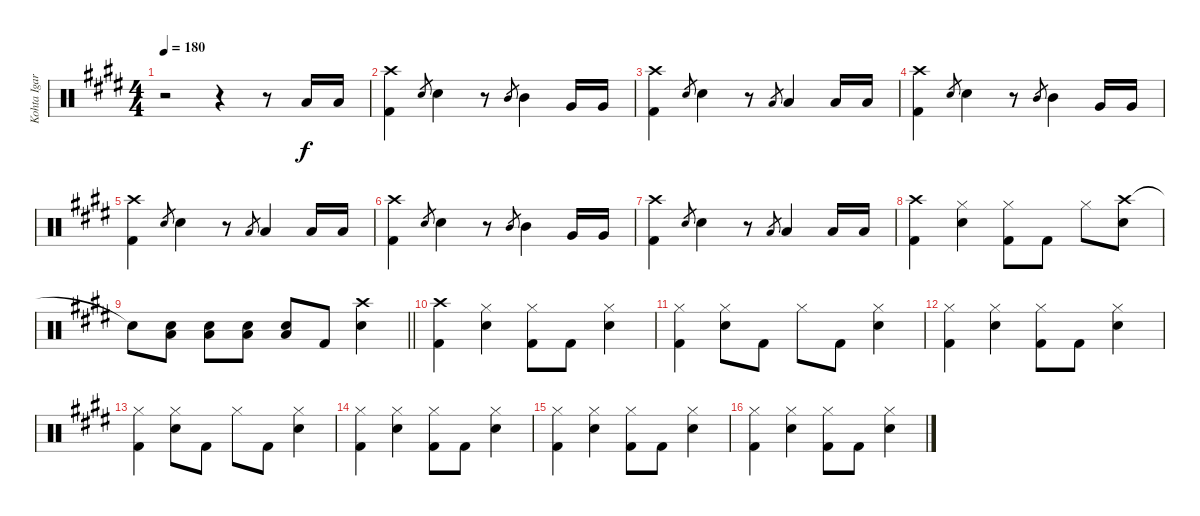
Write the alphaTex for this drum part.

\track ("Kohta Igarashi" "Kohta Igar") {instrument percussion}
\staff {score}
\articulation defaults
\ts (4 4)
\tempo 180
\clef neutral
\ks e
r.2{dy f} r.4 r.8 "Low Floor Tom (hit)".16 "Low Floor Tom (hit)".16 |
("Crash high (hit)" "Kick (hit) 2").4 "Electric Snare (hit)".8{gr} "Electric Snare (hit)".4 r.8 "Mid Tom (hit)".8{gr} "Mid Tom (hit)".4 "Very Low Tom (hit)".16 "Very Low Tom (hit)".16 |
("Crash high (hit)" "Kick (hit) 2").4 "Electric Snare (hit)".8{gr} "Electric Snare (hit)".4 r.8 "Low Tom (hit)".8{gr} "Low Tom (hit)".4 "Low Floor Tom (hit)".16 "Low Floor Tom (hit)".16 |
("Crash high (hit)" "Kick (hit) 2").4 "Electric Snare (hit)".8{gr} "Electric Snare (hit)".4 r.8 "Mid Tom (hit)".8{gr} "Mid Tom (hit)".4 "Very Low Tom (hit)".16 "Very Low Tom (hit)".16 |
("Crash high (hit)" "Kick (hit) 2").4 "Electric Snare (hit)".8{gr} "Electric Snare (hit)".4 r.8 "Low Tom (hit)".8{gr} "Low Tom (hit)".4 "Low Floor Tom (hit)".16 "Low Floor Tom (hit)".16 |
("Crash high (hit)" "Kick (hit) 2").4 "Electric Snare (hit)".8{gr} "Electric Snare (hit)".4 r.8 "Mid Tom (hit)".8{gr} "Mid Tom (hit)".4 "Very Low Tom (hit)".16 "Very Low Tom (hit)".16 |
("Crash high (hit)" "Kick (hit) 2").4 "Electric Snare (hit)".8{gr} "Electric Snare (hit)".4 r.8 "Low Tom (hit)".8{gr} "Low Tom (hit)".4 "Low Floor Tom (hit)".16 "Low Floor Tom (hit)".16 |
("Crash high (hit)" "Kick (hit) 2").4 ("Hi-Hat (closed)" "Electric Snare (hit)").4 ("Hi-Hat (closed)" "Kick (hit) 2").8 "Kick (hit) 2".8 "Hi-Hat (closed)".8 ("Crash high (hit)" "Electric Snare (hit)").8 |
\barLineRight lightlight "Snare (hit)"{t}.8
("Electric Snare (hit)" "Low Floor Tom (hit)").8 ("Electric Snare (hit)" "Low Floor Tom (hit)").8 ("Electric Snare (hit)" "Low Floor Tom (hit)").8 ("Electric Snare (hit)" "Low Floor Tom (hit)").8 "Kick (hit) 2".8 ("Crash high (hit)" "Electric Snare (hit)").4 |
("Crash high (hit)" "Kick (hit) 2").4 ("Hi-Hat (closed)" "Electric Snare (hit)").4 ("Hi-Hat (closed)" "Kick (hit) 2").8 "Kick (hit) 2".8 ("Hi-Hat (closed)" "Electric Snare (hit)").4 |
("Hi-Hat (closed)" "Kick (hit) 2").4 ("Hi-Hat (closed)" "Electric Snare (hit)").8 "Kick (hit) 2".8 "Hi-Hat (closed)".8 "Kick (hit) 2".8 ("Hi-Hat (closed)" "Electric Snare (hit)").4 |
("Hi-Hat (closed)" "Kick (hit) 2").4 ("Hi-Hat (closed)" "Electric Snare (hit)").4 ("Hi-Hat (closed)" "Kick (hit) 2").8 "Kick (hit) 2".8 ("Hi-Hat (closed)" "Electric Snare (hit)").4 |
("Hi-Hat (closed)" "Kick (hit) 2").4 ("Hi-Hat (closed)" "Electric Snare (hit)").8 "Kick (hit) 2".8 "Hi-Hat (closed)".8 "Kick (hit) 2".8 ("Hi-Hat (closed)" "Electric Snare (hit)").4 |
("Hi-Hat (closed)" "Kick (hit) 2").4 ("Hi-Hat (closed)" "Electric Snare (hit)").4 ("Hi-Hat (closed)" "Kick (hit) 2").8 "Kick (hit) 2".8 ("Hi-Hat (closed)" "Electric Snare (hit)").4 |
("Hi-Hat (closed)" "Kick (hit) 2").4 ("Hi-Hat (closed)" "Electric Snare (hit)").4 ("Hi-Hat (closed)" "Kick (hit) 2").8 "Kick (hit) 2".8 ("Hi-Hat (closed)" "Electric Snare (hit)").4 |
("Hi-Hat (closed)" "Kick (hit) 2").4 ("Hi-Hat (closed)" "Electric Snare (hit)").4 ("Hi-Hat (closed)" "Kick (hit) 2").8 "Kick (hit) 2".8 ("Hi-Hat (closed)" "Electric Snare (hit)").4
